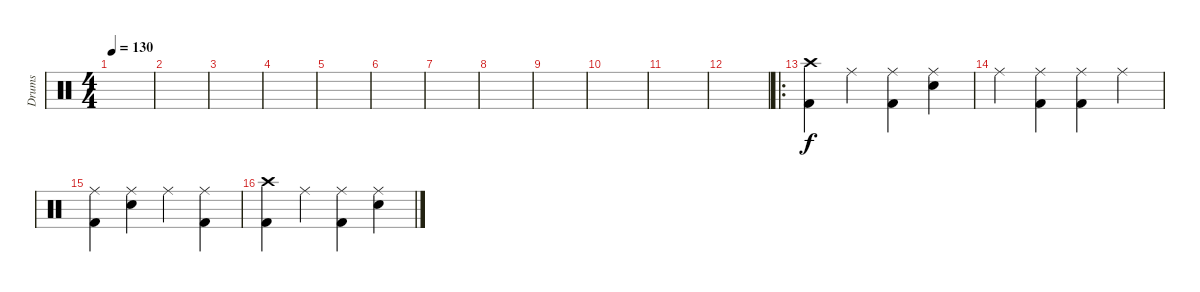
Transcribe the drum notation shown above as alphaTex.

\track ("Drums" "Drums") {instrument percussion}
\staff {score}
\articulation defaults
\ts (4 4)
\tempo 130
\clef neutral
\ks c
|
|
|
|
|
|
|
|
|
|
|
|
\ro
("Crash high (hit)" "Kick (hit) 2").4 "Ride (middle)".4 ("Ride (middle)" "Kick (hit) 2").4 ("Ride (middle)" "Electric Snare (hit)").4 |
"Ride (middle)".4 ("Ride (middle)" "Kick (hit) 2").4 ("Ride (middle)" "Kick (hit) 2").4 "Ride (middle)".4 |
("Ride (middle)" "Kick (hit) 2").4 ("Ride (middle)" "Electric Snare (hit)").4 "Ride (middle)".4 ("Ride (middle)" "Kick (hit) 2").4 |
("Crash high (hit)" "Kick (hit) 2").4 "Ride (middle)".4 ("Ride (middle)" "Kick (hit) 2").4 ("Ride (middle)" "Electric Snare (hit)").4
